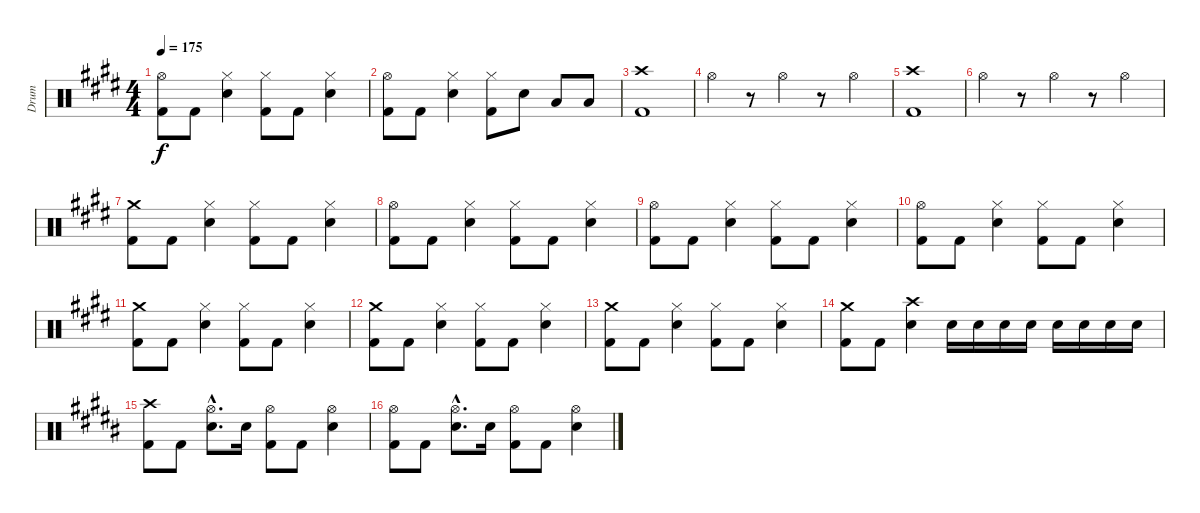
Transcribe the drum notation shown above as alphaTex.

\track ("Drum" "Drum") {instrument percussion}
\staff {score}
\articulation defaults
\ts (4 4)
\tempo 175
\clef neutral
\ks e
("Hi-Hat (open)" "Kick (hit) 2").8{dy f} "Kick (hit) 2".8 ("Hi-Hat (closed)" "Snare (hit) 2").4 ("Hi-Hat (closed)" "Kick (hit) 2").8 "Kick (hit) 2".8 ("Hi-Hat (closed)" "Snare (hit) 2").4 |
("Hi-Hat (open)" "Kick (hit) 2").8 "Kick (hit) 2".8 ("Hi-Hat (closed)" "Snare (hit) 2").4 ("Hi-Hat (closed)" "Kick (hit) 2").8 "Snare (hit) 2".8 "Low Tom (hit)".8 "Low Tom (hit)".8 |
("Crash high (hit)" "Kick (hit) 2").1 |
"Hi-Hat (open)".4 r.8 "Hi-Hat (open)".4 r.8 "Hi-Hat (open)".4 |
("Crash high (hit)" "Kick (hit) 2").1 |
"Hi-Hat (open)".4 r.8 "Hi-Hat (open)".4 r.8 "Hi-Hat (open)".4 |
("Crash medium (hit)" "Kick (hit) 2").8 "Kick (hit) 2".8 ("Hi-Hat (closed)" "Snare (hit) 2").4 ("Hi-Hat (closed)" "Kick (hit) 2").8 "Kick (hit) 2".8 ("Hi-Hat (closed)" "Snare (hit) 2").4 |
("Hi-Hat (open)" "Kick (hit) 2").8 "Kick (hit) 2".8 ("Hi-Hat (closed)" "Snare (hit) 2").4 ("Hi-Hat (closed)" "Kick (hit) 2").8 "Kick (hit) 2".8 ("Hi-Hat (closed)" "Snare (hit) 2").4 |
("Hi-Hat (open)" "Kick (hit) 2").8 "Kick (hit) 2".8 ("Hi-Hat (closed)" "Snare (hit) 2").4 ("Hi-Hat (closed)" "Kick (hit) 2").8 "Kick (hit) 2".8 ("Hi-Hat (closed)" "Snare (hit) 2").4 |
("Hi-Hat (open)" "Kick (hit) 2").8 "Kick (hit) 2".8 ("Hi-Hat (closed)" "Snare (hit) 2").4 ("Hi-Hat (closed)" "Kick (hit) 2").8 "Kick (hit) 2".8 ("Hi-Hat (closed)" "Snare (hit) 2").4 |
("Crash medium (hit)" "Kick (hit) 2").8 "Kick (hit) 2".8 ("Hi-Hat (closed)" "Snare (hit) 2").4 ("Hi-Hat (closed)" "Kick (hit) 2").8 "Kick (hit) 2".8 ("Hi-Hat (closed)" "Snare (hit) 2").4 |
("Crash medium (hit)" "Kick (hit) 2").8 "Kick (hit) 2".8 ("Hi-Hat (closed)" "Snare (hit) 2").4 ("Hi-Hat (closed)" "Kick (hit) 2").8 "Kick (hit) 2".8 ("Hi-Hat (closed)" "Snare (hit) 2").4 |
("Crash medium (hit)" "Kick (hit) 2").8 "Kick (hit) 2".8 ("Hi-Hat (closed)" "Snare (hit) 2").4 ("Hi-Hat (closed)" "Kick (hit) 2").8 "Kick (hit) 2".8 ("Hi-Hat (closed)" "Snare (hit) 2").4 |
("Crash medium (hit)" "Kick (hit) 2").8 "Kick (hit) 2".8 ("Crash high (hit)" "Snare (hit) 2").4 "Snare (hit) 2".16 "Snare (hit) 2".16 "Snare (hit) 2".16 "Snare (hit) 2".16 "Snare (hit) 2".16 "Snare (hit) 2".16 "Snare (hit) 2".16 "Snare (hit) 2".16 |
\ks b
("Crash high (hit)" "Kick (hit) 2").8 "Kick (hit) 2".8 ("Hi-Hat (open)"{hac} "Snare (hit) 2"{hac}).8{d} "Snare (hit) 2".16 ("Hi-Hat (open)" "Kick (hit) 2").8 "Kick (hit) 2".8 ("Hi-Hat (open)" "Snare (hit) 2").4 |
("Hi-Hat (open)" "Kick (hit) 2").8 "Kick (hit) 2".8 ("Hi-Hat (open)"{hac} "Snare (hit) 2"{hac}).8{d} "Snare (hit) 2".16 ("Hi-Hat (open)" "Kick (hit) 2").8 "Kick (hit) 2".8 ("Hi-Hat (open)" "Snare (hit) 2").4
